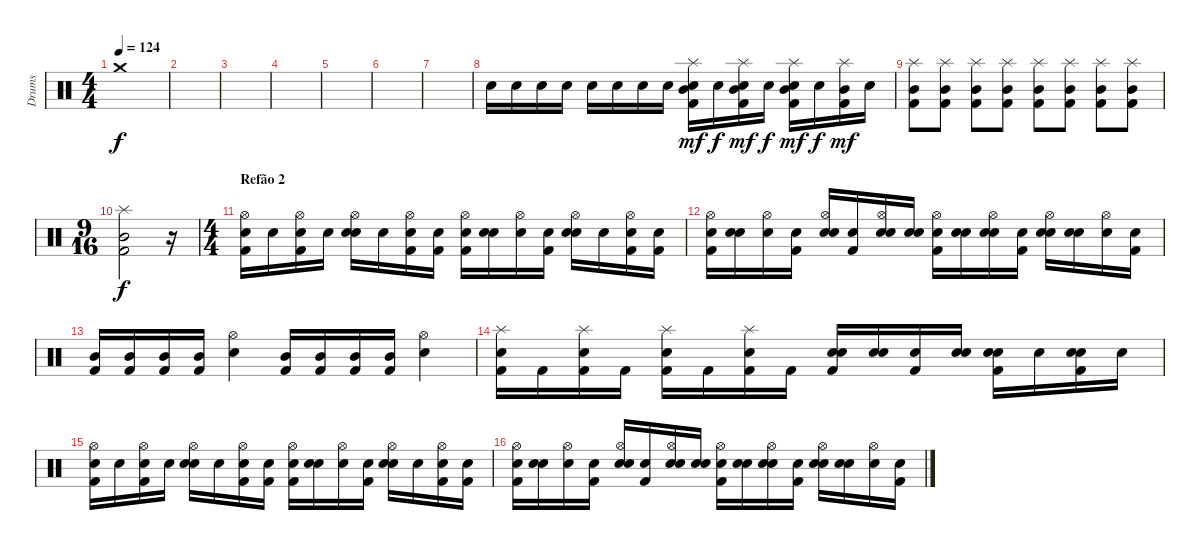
\track ("Drums" "Drums") {instrument percussion}
\staff {score}
\articulation defaults
\ts (4 4)
\tempo 124
\clef neutral
\ks c "Crash medium (hit)".1{dy f}
|
|
|
|
|
|
|
"Snare (hit)"{x}.16 "Snare (hit)"{x}.16 "Snare (hit)"{x}.16 "Snare (hit)"{x}.16 "Snare (hit)"{x}.16 "Snare (hit)"{x}.16 "Snare (hit)"{x}.16 "Snare (hit)"{x}.16 ("Snare (hit)"{x} "Splash (hit)" "Kick (hit) 2" "Mid Tom (hit)").16{dy mf} "Snare (hit)"{x}.16{dy f} ("Snare (hit)"{x} "Splash (hit)" "Kick (hit) 2" "Mid Tom (hit)").16{dy mf} "Snare (hit)"{x}.16{dy f} ("Snare (hit)"{x} "Splash (hit)" "Kick (hit) 2" "Mid Tom (hit)").16{dy mf} "Snare (hit)"{x}.16{dy f} ("Splash (hit)" "Kick (hit) 2" "Mid Tom (hit)").16{dy mf} "Snare (hit)"{x}.16 |
("Splash (hit)" "Kick (hit) 2" "Mid Tom (hit)").8 ("Splash (hit)" "Kick (hit) 2" "Mid Tom (hit)").8 ("Splash (hit)" "Kick (hit) 2" "Mid Tom (hit)").8 ("Splash (hit)" "Kick (hit) 2" "Mid Tom (hit)").8 ("Splash (hit)" "Kick (hit) 2" "Mid Tom (hit)").8 ("Splash (hit)" "Kick (hit) 2" "Mid Tom (hit)").8 ("Splash (hit)" "Kick (hit) 2" "Mid Tom (hit)").8 ("Splash (hit)" "Kick (hit) 2" "Mid Tom (hit)").8 |
\ts (9 16)
("Splash (hit)" "Kick (hit) 2" "Mid Tom (hit)").2{dy f} r.16 |
\ts (4 4)
\section ("" "Refão 2")
("Snare (hit)"{x} "Hi-Hat (open)" "Kick (hit) 2").16 "Snare (hit)"{x}.16 ("Snare (hit)"{x} "Hi-Hat (open)" "Kick (hit) 2").16 "Snare (hit)"{x}.16 ("Snare (hit)"{x} "Hi-Hat (open)" "Electric Snare (hit)").16 "Snare (hit)"{x}.16 ("Snare (hit)"{x} "Hi-Hat (open)" "Kick (hit) 2").16 ("Snare (hit)"{x} "Kick (hit) 2").16 ("Snare (hit)"{x} "Hi-Hat (open)" "Kick (hit) 2").16 ("Snare (hit)"{x} "Electric Snare (hit)").16 ("Snare (hit)"{x} "Hi-Hat (open)").16 ("Snare (hit)"{x} "Kick (hit) 2").16 ("Snare (hit)"{x} "Hi-Hat (open)" "Electric Snare (hit)").16 "Snare (hit)"{x}.16 ("Snare (hit)"{x} "Hi-Hat (open)" "Kick (hit) 2").16 ("Snare (hit)"{x} "Kick (hit) 2").16 |
("Snare (hit)"{x} "Hi-Hat (open)" "Kick (hit) 2").16 ("Snare (hit)"{x} "Electric Snare (hit)").16 ("Snare (hit)"{x} "Hi-Hat (open)").16 ("Snare (hit)"{x} "Kick (hit) 2").16 ("Snare (hit)"{x} "Hi-Hat (open)" "Electric Snare (hit)").16 ("Snare (hit)"{x} "Kick (hit) 2").16 ("Snare (hit)"{x} "Hi-Hat (open)" "Electric Snare (hit)").16 ("Snare (hit)"{x} "Electric Snare (hit)").16 ("Snare (hit)"{x} "Hi-Hat (open)" "Kick (hit) 2").16 ("Snare (hit)"{x} "Electric Snare (hit)").16 ("Snare (hit)"{x} "Hi-Hat (open)" "Electric Snare (hit)").16 ("Snare (hit)"{x} "Kick (hit) 2").16 ("Snare (hit)"{x} "Hi-Hat (open)" "Electric Snare (hit)").16 ("Snare (hit)"{x} "Electric Snare (hit)").16 ("Snare (hit)"{x} "Hi-Hat (open)").16 ("Snare (hit)"{x} "Kick (hit) 2").16 |
("Mid Tom (hit)" "Kick (hit) 2").16 ("Mid Tom (hit)" "Kick (hit) 2").16 ("Mid Tom (hit)" "Kick (hit) 2").16 ("Mid Tom (hit)" "Kick (hit) 2").16 ("Hi-Hat (open)" "Electric Snare (hit)").4 ("Mid Tom (hit)" "Kick (hit) 2").16 ("Mid Tom (hit)" "Kick (hit) 2").16 ("Mid Tom (hit)" "Kick (hit) 2").16 ("Mid Tom (hit)" "Kick (hit) 2").16 ("Hi-Hat (open)" "Electric Snare (hit)").4 |
("Splash (hit)" "Electric Snare (hit)" "Kick (hit) 2").16 "Kick (hit) 2".16 ("Splash (hit)" "Electric Snare (hit)" "Kick (hit) 2").16 "Kick (hit) 2".16 ("Splash (hit)" "Electric Snare (hit)" "Kick (hit) 2").16 "Kick (hit) 2".16 ("Splash (hit)" "Electric Snare (hit)" "Kick (hit) 2").16 "Kick (hit) 2".16 ("Snare (hit)"{x} "Electric Snare (hit)" "Kick (hit) 2").16 ("Snare (hit)"{x} "Electric Snare (hit)").16 ("Snare (hit)"{x} "Kick (hit) 2").16 ("Snare (hit)"{x} "Electric Snare (hit)").16 ("Snare (hit)"{x} "Electric Snare (hit)" "Kick (hit) 2").16 "Snare (hit)"{x}.16 ("Snare (hit)"{x} "Electric Snare (hit)" "Kick (hit) 2").16 "Snare (hit)"{x}.16 |
("Snare (hit)"{x} "Hi-Hat (open)" "Kick (hit) 2").16 "Snare (hit)"{x}.16 ("Snare (hit)"{x} "Hi-Hat (open)" "Kick (hit) 2").16 "Snare (hit)"{x}.16 ("Snare (hit)"{x} "Hi-Hat (open)" "Electric Snare (hit)").16 "Snare (hit)"{x}.16 ("Snare (hit)"{x} "Hi-Hat (open)" "Kick (hit) 2").16 ("Snare (hit)"{x} "Kick (hit) 2").16 ("Snare (hit)"{x} "Hi-Hat (open)" "Kick (hit) 2").16 ("Snare (hit)"{x} "Electric Snare (hit)").16 ("Snare (hit)"{x} "Hi-Hat (open)").16 ("Snare (hit)"{x} "Kick (hit) 2").16 ("Snare (hit)"{x} "Hi-Hat (open)" "Electric Snare (hit)").16 "Snare (hit)"{x}.16 ("Snare (hit)"{x} "Hi-Hat (open)" "Kick (hit) 2").16 ("Snare (hit)"{x} "Kick (hit) 2").16 |
("Snare (hit)"{x} "Hi-Hat (open)" "Kick (hit) 2").16 ("Snare (hit)"{x} "Electric Snare (hit)").16 ("Snare (hit)"{x} "Hi-Hat (open)").16 ("Snare (hit)"{x} "Kick (hit) 2").16 ("Snare (hit)"{x} "Hi-Hat (open)" "Electric Snare (hit)").16 ("Snare (hit)"{x} "Kick (hit) 2").16 ("Snare (hit)"{x} "Hi-Hat (open)" "Electric Snare (hit)").16 ("Snare (hit)"{x} "Electric Snare (hit)").16 ("Snare (hit)"{x} "Hi-Hat (open)" "Kick (hit) 2").16 ("Snare (hit)"{x} "Electric Snare (hit)").16 ("Snare (hit)"{x} "Hi-Hat (open)" "Electric Snare (hit)").16 ("Snare (hit)"{x} "Kick (hit) 2").16 ("Snare (hit)"{x} "Hi-Hat (open)" "Electric Snare (hit)").16 ("Snare (hit)"{x} "Electric Snare (hit)").16 ("Snare (hit)"{x} "Hi-Hat (open)").16 ("Snare (hit)"{x} "Kick (hit) 2").16
